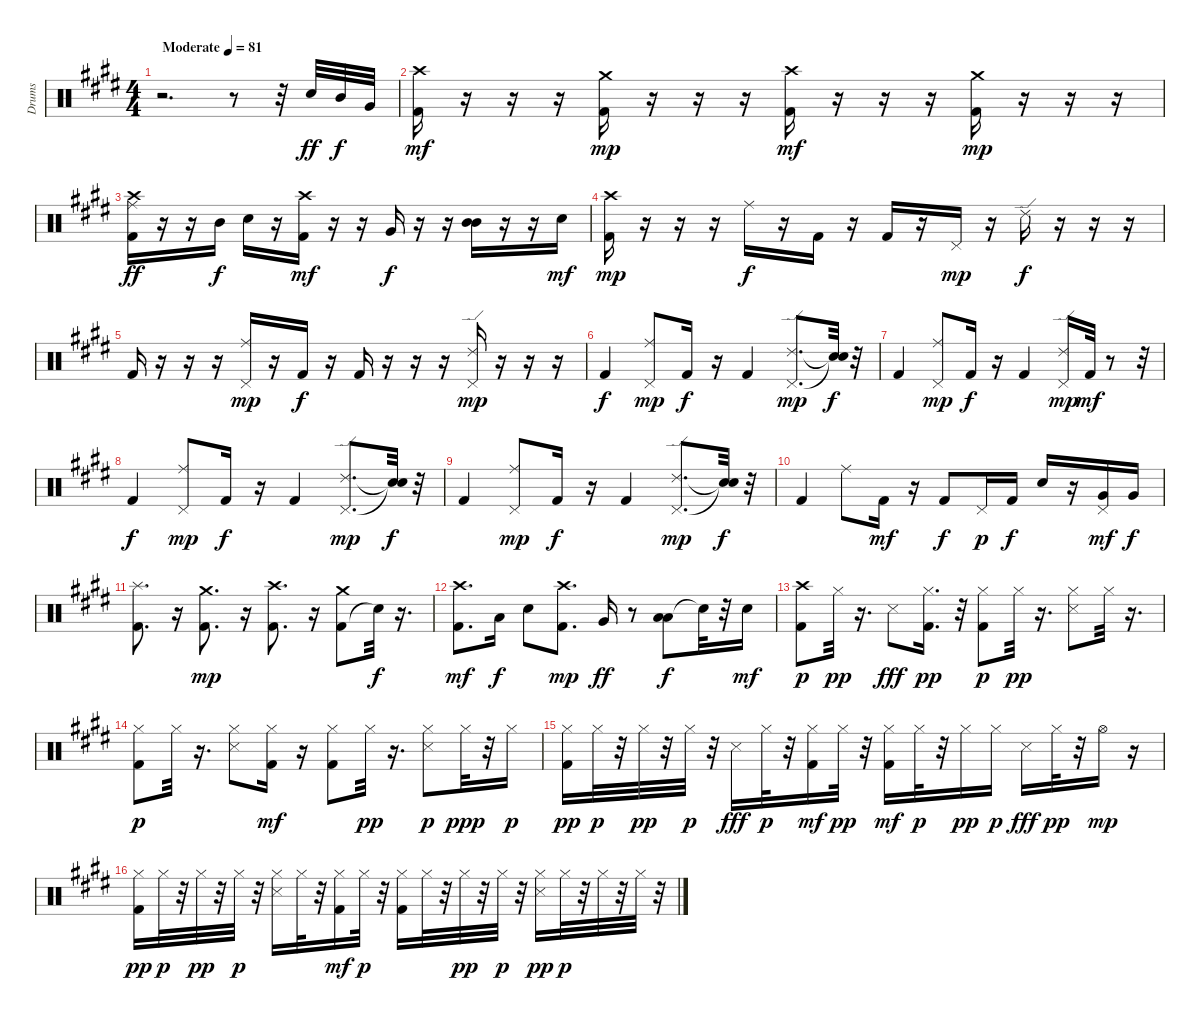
\track ("Drums" "Drums") {instrument percussion}
\staff {score}
\articulation defaults
\ts (4 4)
\tempo (81 "Moderate")
\clef neutral
\ks c#minor
r.2{d dy ff} r.8 r.32 "Snare (hit) 2".32 "Mid Tom (hit)".32{dy f} "Very Low Tom (hit)".32 |
("Kick (hit) 2" "Crash high (hit)").16{dy mf} r.16 r.16 r.16 ("Kick (hit) 2" "Crash medium (hit)").16{dy mp} r.16 r.16 r.16 ("Kick (hit) 2" "Crash high (hit)").16{dy mf} r.16 r.16 r.16 ("Kick (hit) 2" "Crash medium (hit)").16{dy mp} r.16 r.16 r.16 |
("Crash high (hit)" "Ride (middle)" "Kick (hit) 2").16{dy ff} r.16 r.16 "Mid Tom (hit)".16{dy f} "Snare (hit) 2".16 r.16 ("Kick (hit) 2" "Crash high (hit)").16{dy mf} r.16 r.16 "Very Low Tom (hit)".16{dy f} r.16 r.16 ("Mid Tom (hit)" "Mid Tom (hit)").16 r.16 r.16 "Snare (hit) 2".16{dy mf} |
\ks e
("Kick (hit) 2" "Crash high (hit)").16{dy mp} r.16 r.16 r.16 "Ride (middle)".16{dy f} r.16 "Kick (hit) 2".16 r.16 "Kick (hit) 2".16 r.16 "Pedal Hi-Hat (hit)".16{dy mp} r.16 "Ride (edge) 2".16{dy f} r.16 r.16 r.16 |
\ks c#minor "Kick (hit) 2".16
r.16 r.16 r.16 ("Pedal Hi-Hat (hit)" "Ride (middle)").16{dy mp} r.16 "Kick (hit) 2".16{dy f} r.16 "Kick (hit) 2".16 r.16 r.16 r.16 ("Pedal Hi-Hat (hit)" "Ride (edge) 2").16{dy mp} r.16 r.16 r.16 |
"Kick (hit) 2".4{dy f} ("Pedal Hi-Hat (hit)" "Ride (middle)").8{dy mp} "Kick (hit) 2".16{dy f} r.16 "Kick (hit) 2".4 ("Pedal Hi-Hat (hit)" "Ride (edge) 2").8{d dy mp} ("Snare (hit)"{t} "Snare (hit)"{t}).32{dy f} r.32 |
"Kick (hit) 2".4 ("Pedal Hi-Hat (hit)" "Ride (middle)").8{dy mp} "Kick (hit) 2".16{dy f} r.16 "Kick (hit) 2".4 ("Pedal Hi-Hat (hit)" "Ride (edge) 2").16{dy mp} "Kick (hit) 2".32{dy mf} r.8 r.32 |
\ks e "Kick (hit) 2".4{dy f}
("Pedal Hi-Hat (hit)" "Ride (middle)").8{dy mp} "Kick (hit) 2".16{dy f} r.16 "Kick (hit) 2".4 ("Pedal Hi-Hat (hit)" "Ride (edge) 2").8{d dy mp} ("Snare (hit)"{t} "Snare (hit)"{t}).32{dy f} r.32 |
\ks c#minor "Kick (hit) 2".4
("Pedal Hi-Hat (hit)" "Ride (middle)").8{dy mp} "Kick (hit) 2".16{dy f} r.16 "Kick (hit) 2".4 ("Pedal Hi-Hat (hit)" "Ride (edge) 2").8{d dy mp} ("Snare (hit)"{t} "Snare (hit)"{t}).32{dy f} r.32 |
"Kick (hit) 2".4 "Ride (middle)".8 "Kick (hit) 2".16{dy mf} r.16 "Kick (hit) 2".8{dy f} "Pedal Hi-Hat (hit)".16{dy p} "Kick (hit) 2".16{dy f} "Snare (hit) 2".16 r.16 ("Very Low Tom (hit)" "Pedal Hi-Hat (hit)").16{dy mf} "Very Low Tom (hit)".16{dy f} |
("Kick (hit) 2" "Splash (hit)").8{d} r.16 ("Kick (hit) 2" "Crash medium (hit)").8{d dy mp} r.16 ("Kick (hit) 2" "Crash high (hit)").8{d} r.16 ("Kick (hit) 2" "Crash medium (hit)").8 "Snare (hit)"{t}.32{dy f} r.16{d} |
\ks e
("Kick (hit) 2" "Crash high (hit)").8{d dy mf} "Low Tom (hit)".16{dy f} "Snare (hit) 2".8 ("Kick (hit) 2" "Crash high (hit)").8{d dy mp} "Very Low Tom (hit)".16{dy ff} r.8 ("Low Tom (hit)" "Low Tom (hit)").8{dy f} "Snare (hit)"{t}.32 r.32 "Snare (hit) 2".16{dy mf} |
\ks c#minor
("Kick (hit) 2" "Crash high (hit)").8{dy p} "Hi-Hat (closed)".32{dy pp} r.16{d} "Snare (side stick) 3".8{dy fff} ("Hi-Hat (closed)" "Kick (hit) 2").16{d dy pp} r.32 ("Hi-Hat (closed)" "Kick (hit) 2").8{dy p} "Hi-Hat (closed)".32{dy pp} r.16{d} ("Snare (side stick) 3" "Hi-Hat (closed)").8 "Hi-Hat (closed)".32 r.16{d} |
("Hi-Hat (closed)" "Kick (hit) 2").8{dy p} "Hi-Hat (closed)".32 r.16{d} ("Snare (side stick) 3" "Hi-Hat (closed)").8 ("Hi-Hat (closed)" "Kick (hit) 2").16{dy mf} r.16 ("Hi-Hat (closed)" "Kick (hit) 2").8 "Hi-Hat (closed)".32{dy pp} r.16{d} ("Snare (side stick) 3" "Hi-Hat (closed)").8{dy p} "Hi-Hat (closed)".32{dy ppp} r.32 "Hi-Hat (closed)".16{dy p} |
("Hi-Hat (closed)" "Kick (hit) 2").16{dy pp} "Hi-Hat (closed)".32{dy p} r.32 "Hi-Hat (closed)".32{dy pp} r.32 "Hi-Hat (closed)".32{dy p} r.32 "Snare (side stick) 3".16{dy fff} "Hi-Hat (closed)".32{dy p} r.32 ("Hi-Hat (closed)" "Kick (hit) 2").16{dy mf} "Hi-Hat (closed)".32{dy pp} r.32 ("Hi-Hat (closed)" "Kick (hit) 2").16{dy mf} "Hi-Hat (closed)".32{dy p} r.32 "Hi-Hat (closed)".16{dy pp} "Hi-Hat (closed)".16{dy p} "Snare (side stick) 3".16{dy fff} "Hi-Hat (closed)".32{dy pp} r.32 "Hi-Hat (open)".16{dy mp} r.16 |
\ks e
("Hi-Hat (closed)" "Kick (hit) 2").16{dy pp} "Hi-Hat (closed)".32{dy p} r.32 "Hi-Hat (closed)".32{dy pp} r.32 "Hi-Hat (closed)".32{dy p} r.32 ("Snare (side stick) 3" "Hi-Hat (closed)").16 "Hi-Hat (closed)".32 r.32 ("Hi-Hat (closed)" "Kick (hit) 2").16{dy mf} "Hi-Hat (closed)".32{dy p} r.32 ("Hi-Hat (closed)" "Kick (hit) 2").16 "Hi-Hat (closed)".32 r.32 "Hi-Hat (closed)".32{dy pp} r.32 "Hi-Hat (closed)".32{dy p} r.32 ("Snare (side stick) 3" "Hi-Hat (closed)").16{dy pp} "Hi-Hat (closed)".32{dy p} r.32 "Hi-Hat (closed)".32 r.32 "Hi-Hat (closed)".32 r.32
